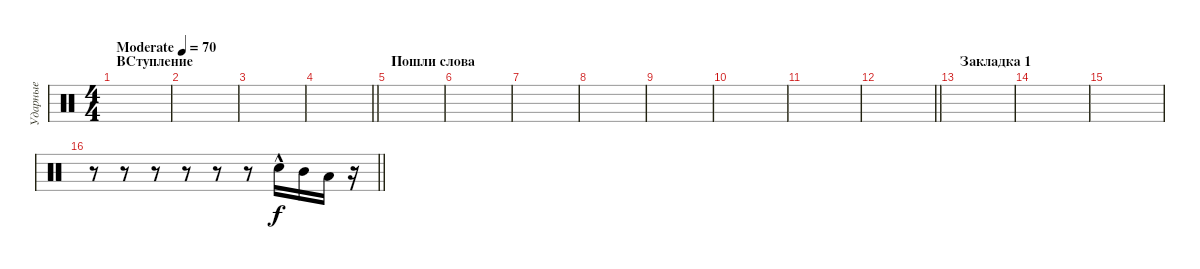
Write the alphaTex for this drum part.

\track ("Ударные" "Ударные") {instrument percussion}
\staff {score}
\articulation defaults
\ts (4 4)
\section ("" "ВСтупление ")
\tempo (70 "Moderate")
\clef neutral
\ks c
|
|
|
\barLineRight lightlight
|
\section ("" "Пошли слова")
|
|
|
|
|
|
|
\barLineRight lightlight
|
\section ("" "Закладка 1")
|
|
|
\barLineRight lightlight
r.8 r.8 r.8 r.8 r.8 r.8 "Snare (hit) 2"{hac}.16 "Mid Tom (hit)".16{dy f} "Low Tom (hit)".16 r.16
